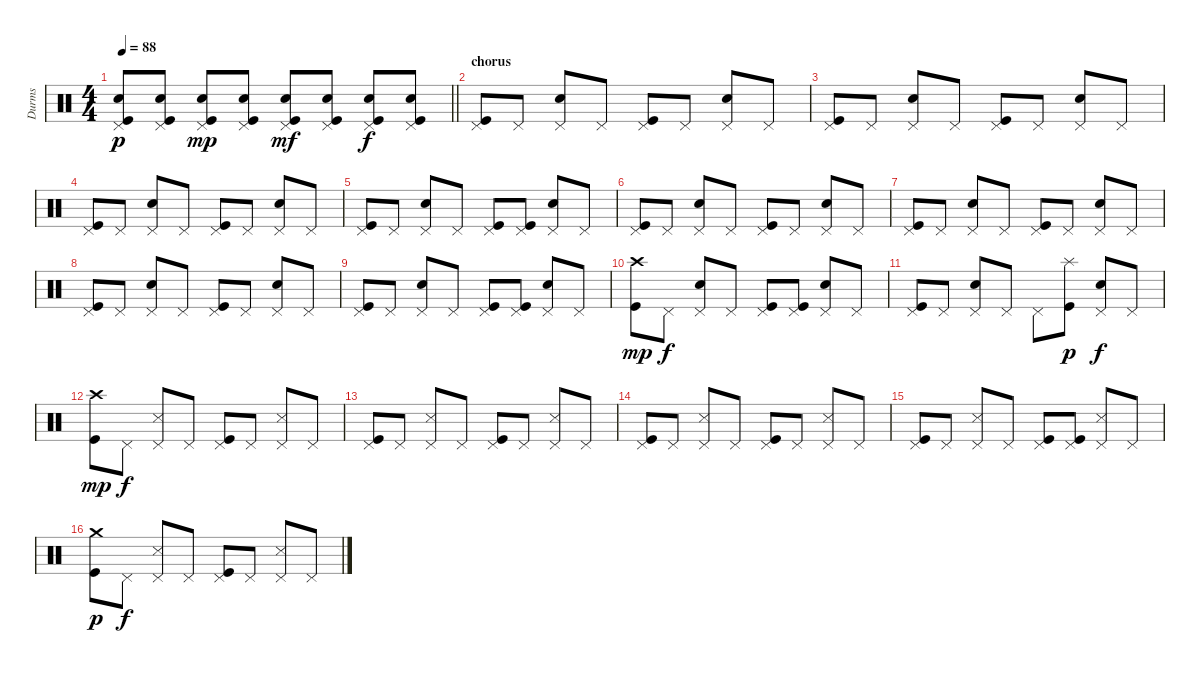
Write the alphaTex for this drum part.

\track ("Durms" "Durms") {instrument percussion}
\staff {score}
\articulation defaults
\ts (4 4)
\tempo 88
\clef neutral
\barLineRight lightlight
\ks c
("Pedal Hi-Hat (hit)" "Snare (hit) 2" "Kick (hit)").8{dy p} ("Pedal Hi-Hat (hit)" "Snare (hit) 2" "Kick (hit)").8 ("Pedal Hi-Hat (hit)" "Snare (hit) 2" "Kick (hit)").8{dy mp} ("Pedal Hi-Hat (hit)" "Snare (hit) 2" "Kick (hit)").8 ("Pedal Hi-Hat (hit)" "Snare (hit) 2" "Kick (hit)").8{dy mf} ("Pedal Hi-Hat (hit)" "Snare (hit) 2" "Kick (hit)").8 ("Pedal Hi-Hat (hit)" "Snare (hit) 2" "Kick (hit)").8{dy f} ("Pedal Hi-Hat (hit)" "Snare (hit) 2" "Kick (hit)").8 |
\section ("" "chorus")
("Pedal Hi-Hat (hit)" "Kick (hit)").8 "Pedal Hi-Hat (hit)".8 ("Pedal Hi-Hat (hit)" "Snare (hit) 2").8 "Pedal Hi-Hat (hit)".8 ("Pedal Hi-Hat (hit)" "Kick (hit)").8 "Pedal Hi-Hat (hit)".8 ("Pedal Hi-Hat (hit)" "Snare (hit) 2").8 "Pedal Hi-Hat (hit)".8 |
("Pedal Hi-Hat (hit)" "Kick (hit)").8 "Pedal Hi-Hat (hit)".8 ("Pedal Hi-Hat (hit)" "Snare (hit) 2").8 "Pedal Hi-Hat (hit)".8 ("Pedal Hi-Hat (hit)" "Kick (hit)").8 "Pedal Hi-Hat (hit)".8 ("Pedal Hi-Hat (hit)" "Snare (hit) 2").8 "Pedal Hi-Hat (hit)".8 |
("Pedal Hi-Hat (hit)" "Kick (hit)").8 "Pedal Hi-Hat (hit)".8 ("Pedal Hi-Hat (hit)" "Snare (hit) 2").8 "Pedal Hi-Hat (hit)".8 ("Pedal Hi-Hat (hit)" "Kick (hit)").8 "Pedal Hi-Hat (hit)".8 ("Pedal Hi-Hat (hit)" "Snare (hit) 2").8 "Pedal Hi-Hat (hit)".8 |
("Pedal Hi-Hat (hit)" "Kick (hit)").8 "Pedal Hi-Hat (hit)".8 ("Pedal Hi-Hat (hit)" "Snare (hit) 2").8 "Pedal Hi-Hat (hit)".8 ("Pedal Hi-Hat (hit)" "Kick (hit)").8 ("Pedal Hi-Hat (hit)" "Kick (hit)").8 ("Pedal Hi-Hat (hit)" "Snare (hit) 2").8 "Pedal Hi-Hat (hit)".8 |
("Pedal Hi-Hat (hit)" "Kick (hit)").8 "Pedal Hi-Hat (hit)".8 ("Pedal Hi-Hat (hit)" "Snare (hit) 2").8 "Pedal Hi-Hat (hit)".8 ("Pedal Hi-Hat (hit)" "Kick (hit)").8 "Pedal Hi-Hat (hit)".8 ("Pedal Hi-Hat (hit)" "Snare (hit) 2").8 "Pedal Hi-Hat (hit)".8 |
("Pedal Hi-Hat (hit)" "Kick (hit)").8 "Pedal Hi-Hat (hit)".8 ("Pedal Hi-Hat (hit)" "Snare (hit) 2").8 "Pedal Hi-Hat (hit)".8 ("Pedal Hi-Hat (hit)" "Kick (hit)").8 "Pedal Hi-Hat (hit)".8 ("Pedal Hi-Hat (hit)" "Snare (hit) 2").8 "Pedal Hi-Hat (hit)".8 |
("Pedal Hi-Hat (hit)" "Kick (hit)").8 "Pedal Hi-Hat (hit)".8 ("Pedal Hi-Hat (hit)" "Snare (hit) 2").8 "Pedal Hi-Hat (hit)".8 ("Pedal Hi-Hat (hit)" "Kick (hit)").8 "Pedal Hi-Hat (hit)".8 ("Pedal Hi-Hat (hit)" "Snare (hit) 2").8 "Pedal Hi-Hat (hit)".8 |
("Pedal Hi-Hat (hit)" "Kick (hit)").8 "Pedal Hi-Hat (hit)".8 ("Pedal Hi-Hat (hit)" "Snare (hit) 2").8 "Pedal Hi-Hat (hit)".8 ("Pedal Hi-Hat (hit)" "Kick (hit)").8 ("Pedal Hi-Hat (hit)" "Kick (hit)").8 ("Pedal Hi-Hat (hit)" "Snare (hit) 2").8 "Pedal Hi-Hat (hit)".8 |
("Crash high (hit)" "Kick (hit)").8{dy mp} "Pedal Hi-Hat (hit)".8{dy f} ("Pedal Hi-Hat (hit)" "Snare (hit) 2").8 "Pedal Hi-Hat (hit)".8 ("Pedal Hi-Hat (hit)" "Kick (hit)").8 ("Pedal Hi-Hat (hit)" "Kick (hit)").8 ("Pedal Hi-Hat (hit)" "Snare (hit) 2").8 "Pedal Hi-Hat (hit)".8 |
("Pedal Hi-Hat (hit)" "Kick (hit)").8 "Pedal Hi-Hat (hit)".8 ("Pedal Hi-Hat (hit)" "Snare (hit) 2").8 "Pedal Hi-Hat (hit)".8 "Pedal Hi-Hat (hit)".8 ("Splash (hit)" "Kick (hit)").8{dy p} ("Pedal Hi-Hat (hit)" "Snare (hit) 2").8{dy f} "Pedal Hi-Hat (hit)".8 |
("Crash high (hit)" "Kick (hit)").8{dy mp} "Pedal Hi-Hat (hit)".8{dy f} ("Pedal Hi-Hat (hit)" "Snare (side stick) 3").8 "Pedal Hi-Hat (hit)".8 ("Pedal Hi-Hat (hit)" "Kick (hit)").8 "Pedal Hi-Hat (hit)".8 ("Pedal Hi-Hat (hit)" "Snare (side stick) 3").8 "Pedal Hi-Hat (hit)".8 |
("Pedal Hi-Hat (hit)" "Kick (hit)").8 "Pedal Hi-Hat (hit)".8 ("Pedal Hi-Hat (hit)" "Snare (side stick) 3").8 "Pedal Hi-Hat (hit)".8 ("Pedal Hi-Hat (hit)" "Kick (hit)").8 "Pedal Hi-Hat (hit)".8 ("Pedal Hi-Hat (hit)" "Snare (side stick) 3").8 "Pedal Hi-Hat (hit)".8 |
("Pedal Hi-Hat (hit)" "Kick (hit)").8 "Pedal Hi-Hat (hit)".8 ("Pedal Hi-Hat (hit)" "Snare (side stick) 3").8 "Pedal Hi-Hat (hit)".8 ("Pedal Hi-Hat (hit)" "Kick (hit)").8 "Pedal Hi-Hat (hit)".8 ("Pedal Hi-Hat (hit)" "Snare (side stick) 3").8 "Pedal Hi-Hat (hit)".8 |
("Pedal Hi-Hat (hit)" "Kick (hit)").8 "Pedal Hi-Hat (hit)".8 ("Pedal Hi-Hat (hit)" "Snare (side stick) 3").8 "Pedal Hi-Hat (hit)".8 ("Pedal Hi-Hat (hit)" "Kick (hit)").8 ("Pedal Hi-Hat (hit)" "Kick (hit)").8 ("Pedal Hi-Hat (hit)" "Snare (side stick) 3").8 "Pedal Hi-Hat (hit)".8 |
("Crash medium (hit)" "Kick (hit)").8{dy p} "Pedal Hi-Hat (hit)".8{dy f} ("Pedal Hi-Hat (hit)" "Snare (side stick) 3").8 "Pedal Hi-Hat (hit)".8 ("Pedal Hi-Hat (hit)" "Kick (hit)").8 "Pedal Hi-Hat (hit)".8 ("Pedal Hi-Hat (hit)" "Snare (side stick) 3").8 "Pedal Hi-Hat (hit)".8
